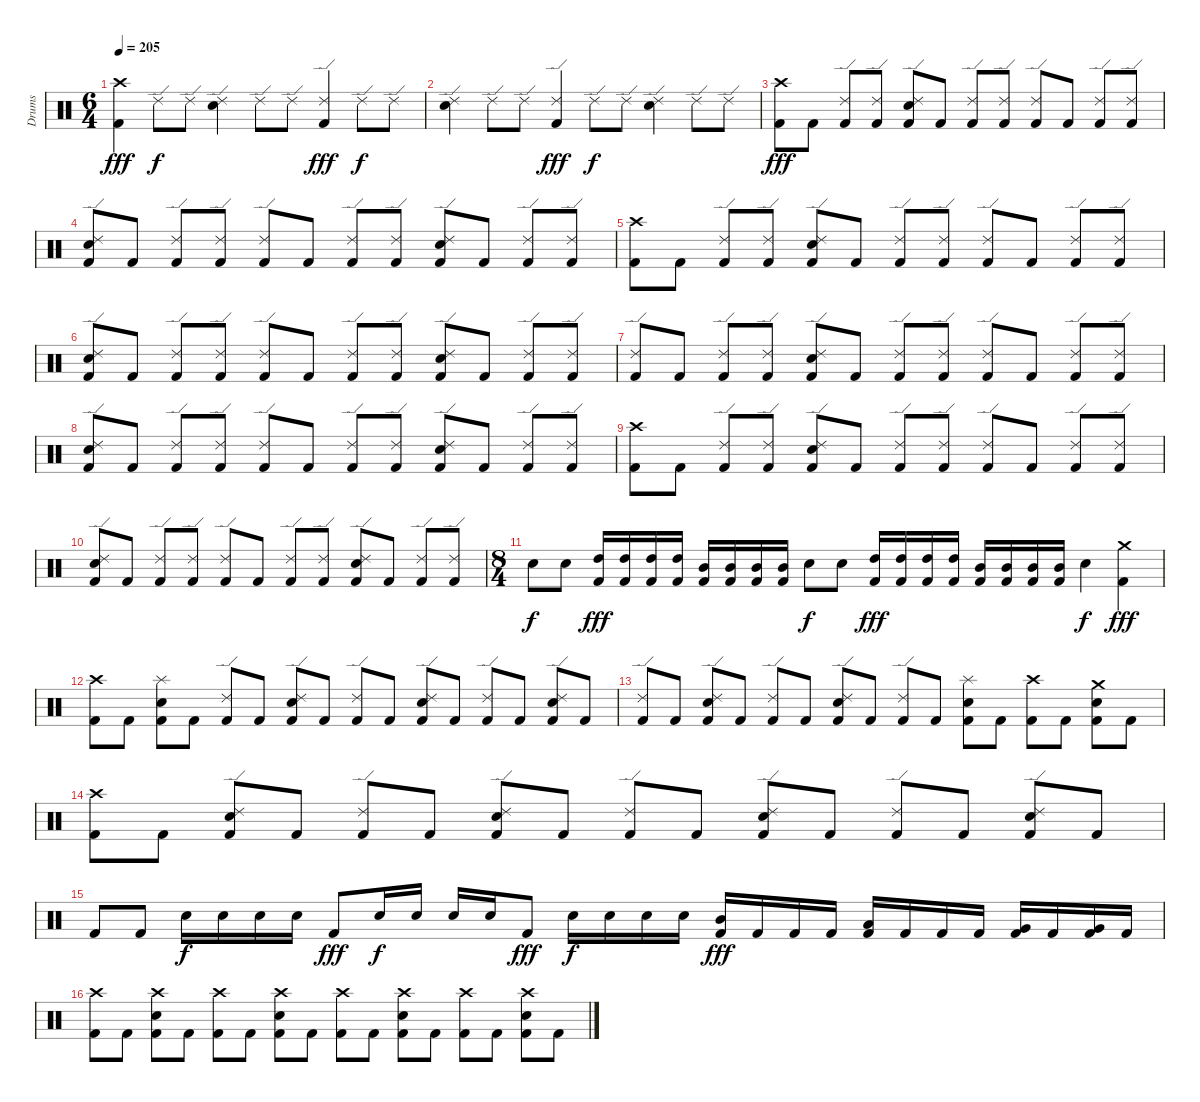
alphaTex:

\track ("Drums" "Drums") {instrument percussion}
\staff {score}
\articulation defaults
\ts (6 4)
\tempo 205
\clef neutral
\ks c
("Crash high (hit)" "Kick (hit) 2").4{dy fff} "Ride (edge) 2".8{dy f} "Ride (edge) 2".8 ("Ride (edge) 2" "Snare (hit) 2").4 "Ride (edge) 2".8 "Ride (edge) 2".8 ("Ride (edge) 2" "Kick (hit) 2").4{dy fff} "Ride (edge) 2".8{dy f} "Ride (edge) 2".8 |
("Ride (edge) 2" "Snare (hit) 2").4 "Ride (edge) 2".8 "Ride (edge) 2".8 ("Ride (edge) 2" "Kick (hit) 2").4{dy fff} "Ride (edge) 2".8{dy f} "Ride (edge) 2".8 ("Ride (edge) 2" "Snare (hit) 2").4 "Ride (edge) 2".8 "Ride (edge) 2".8 |
("Crash high (hit)" "Kick (hit) 2").8{dy fff} "Kick (hit) 2".8 ("Ride (edge) 2" "Kick (hit) 2").8 ("Ride (edge) 2" "Kick (hit) 2").8 ("Ride (edge) 2" "Snare (hit) 2" "Kick (hit) 2").8 "Kick (hit) 2".8 ("Ride (edge) 2" "Kick (hit) 2").8 ("Ride (edge) 2" "Kick (hit) 2").8 ("Ride (edge) 2" "Kick (hit) 2").8 "Kick (hit) 2".8 ("Ride (edge) 2" "Kick (hit) 2").8 ("Ride (edge) 2" "Kick (hit) 2").8 |
("Ride (edge) 2" "Snare (hit) 2" "Kick (hit) 2").8 "Kick (hit) 2".8 ("Ride (edge) 2" "Kick (hit) 2").8 ("Ride (edge) 2" "Kick (hit) 2").8 ("Ride (edge) 2" "Kick (hit) 2").8 "Kick (hit) 2".8 ("Ride (edge) 2" "Kick (hit) 2").8 ("Ride (edge) 2" "Kick (hit) 2").8 ("Ride (edge) 2" "Snare (hit) 2" "Kick (hit) 2").8 "Kick (hit) 2".8 ("Ride (edge) 2" "Kick (hit) 2").8 ("Ride (edge) 2" "Kick (hit) 2").8 |
("Crash high (hit)" "Kick (hit) 2").8 "Kick (hit) 2".8 ("Ride (edge) 2" "Kick (hit) 2").8 ("Ride (edge) 2" "Kick (hit) 2").8 ("Ride (edge) 2" "Snare (hit) 2" "Kick (hit) 2").8 "Kick (hit) 2".8 ("Ride (edge) 2" "Kick (hit) 2").8 ("Ride (edge) 2" "Kick (hit) 2").8 ("Ride (edge) 2" "Kick (hit) 2").8 "Kick (hit) 2".8 ("Ride (edge) 2" "Kick (hit) 2").8 ("Ride (edge) 2" "Kick (hit) 2").8 |
("Ride (edge) 2" "Snare (hit) 2" "Kick (hit) 2").8 "Kick (hit) 2".8 ("Ride (edge) 2" "Kick (hit) 2").8 ("Ride (edge) 2" "Kick (hit) 2").8 ("Ride (edge) 2" "Kick (hit) 2").8 "Kick (hit) 2".8 ("Ride (edge) 2" "Kick (hit) 2").8 ("Ride (edge) 2" "Kick (hit) 2").8 ("Ride (edge) 2" "Snare (hit) 2" "Kick (hit) 2").8 "Kick (hit) 2".8 ("Ride (edge) 2" "Kick (hit) 2").8 ("Ride (edge) 2" "Kick (hit) 2").8 |
("Ride (edge) 2" "Kick (hit) 2").8 "Kick (hit) 2".8 ("Ride (edge) 2" "Kick (hit) 2").8 ("Ride (edge) 2" "Kick (hit) 2").8 ("Ride (edge) 2" "Snare (hit) 2" "Kick (hit) 2").8 "Kick (hit) 2".8 ("Ride (edge) 2" "Kick (hit) 2").8 ("Ride (edge) 2" "Kick (hit) 2").8 ("Ride (edge) 2" "Kick (hit) 2").8 "Kick (hit) 2".8 ("Ride (edge) 2" "Kick (hit) 2").8 ("Ride (edge) 2" "Kick (hit) 2").8 |
("Ride (edge) 2" "Snare (hit) 2" "Kick (hit) 2").8 "Kick (hit) 2".8 ("Ride (edge) 2" "Kick (hit) 2").8 ("Ride (edge) 2" "Kick (hit) 2").8 ("Ride (edge) 2" "Kick (hit) 2").8 "Kick (hit) 2".8 ("Ride (edge) 2" "Kick (hit) 2").8 ("Ride (edge) 2" "Kick (hit) 2").8 ("Ride (edge) 2" "Snare (hit) 2" "Kick (hit) 2").8 "Kick (hit) 2".8 ("Ride (edge) 2" "Kick (hit) 2").8 ("Ride (edge) 2" "Kick (hit) 2").8 |
("Crash high (hit)" "Kick (hit) 2").8 "Kick (hit) 2".8 ("Ride (edge) 2" "Kick (hit) 2").8 ("Ride (edge) 2" "Kick (hit) 2").8 ("Ride (edge) 2" "Snare (hit) 2" "Kick (hit) 2").8 "Kick (hit) 2".8 ("Ride (edge) 2" "Kick (hit) 2").8 ("Ride (edge) 2" "Kick (hit) 2").8 ("Ride (edge) 2" "Kick (hit) 2").8 "Kick (hit) 2".8 ("Ride (edge) 2" "Kick (hit) 2").8 ("Ride (edge) 2" "Kick (hit) 2").8 |
("Ride (edge) 2" "Snare (hit) 2" "Kick (hit) 2").8 "Kick (hit) 2".8 ("Ride (edge) 2" "Kick (hit) 2").8 ("Ride (edge) 2" "Kick (hit) 2").8 ("Ride (edge) 2" "Kick (hit) 2").8 "Kick (hit) 2".8 ("Ride (edge) 2" "Kick (hit) 2").8 ("Ride (edge) 2" "Kick (hit) 2").8 ("Ride (edge) 2" "Snare (hit) 2" "Kick (hit) 2").8 "Kick (hit) 2".8 ("Ride (edge) 2" "Kick (hit) 2").8 ("Ride (edge) 2" "Kick (hit) 2").8 |
\ts (8 4)
"Snare (hit) 2".8{dy f} "Snare (hit) 2".8 ("High Tom (hit)" "Kick (hit) 2").16{dy fff} ("High Tom (hit)" "Kick (hit) 2").16 ("High Tom (hit)" "Kick (hit) 2").16 ("High Tom (hit)" "Kick (hit) 2").16 ("Mid Tom (hit)" "Kick (hit) 2").16 ("Mid Tom (hit)" "Kick (hit) 2").16 ("Mid Tom (hit)" "Kick (hit) 2").16 ("Mid Tom (hit)" "Kick (hit) 2").16 "Snare (hit) 2".8{dy f} "Snare (hit) 2".8 ("High Tom (hit)" "Kick (hit) 2").16{dy fff} ("High Tom (hit)" "Kick (hit) 2").16 ("High Tom (hit)" "Kick (hit) 2").16 ("High Tom (hit)" "Kick (hit) 2").16 ("Mid Tom (hit)" "Kick (hit) 2").16 ("Mid Tom (hit)" "Kick (hit) 2").16 ("Mid Tom (hit)" "Kick (hit) 2").16 ("Mid Tom (hit)" "Kick (hit) 2").16 "Snare (hit) 2".4{dy f} ("Crash medium (hit)" "Kick (hit) 2").4{dy fff} |
("Crash high (hit)" "Kick (hit) 2").8 "Kick (hit) 2".8 ("Splash (hit)" "Snare (hit) 2" "Kick (hit) 2").8 "Kick (hit) 2".8 ("Ride (edge) 2" "Kick (hit) 2").8 "Kick (hit) 2".8 ("Ride (edge) 2" "Snare (hit) 2" "Kick (hit) 2").8 "Kick (hit) 2".8 ("Ride (edge) 2" "Kick (hit) 2").8 "Kick (hit) 2".8 ("Ride (edge) 2" "Snare (hit) 2" "Kick (hit) 2").8 "Kick (hit) 2".8 ("Ride (edge) 2" "Kick (hit) 2").8 "Kick (hit) 2".8 ("Ride (edge) 2" "Snare (hit) 2" "Kick (hit) 2").8 "Kick (hit) 2".8 |
("Ride (edge) 2" "Kick (hit) 2").8 "Kick (hit) 2".8 ("Ride (edge) 2" "Snare (hit) 2" "Kick (hit) 2").8 "Kick (hit) 2".8 ("Ride (edge) 2" "Kick (hit) 2").8 "Kick (hit) 2".8 ("Ride (edge) 2" "Snare (hit) 2" "Kick (hit) 2").8 "Kick (hit) 2".8 ("Ride (edge) 2" "Kick (hit) 2").8 "Kick (hit) 2".8 ("Splash (hit)" "Snare (hit) 2" "Kick (hit) 2").8 "Kick (hit) 2".8 ("Crash high (hit)" "Kick (hit) 2").8 "Kick (hit) 2".8 ("Crash medium (hit)" "Snare (hit) 2" "Kick (hit) 2").8 "Kick (hit) 2".8 |
("Crash high (hit)" "Kick (hit) 2").8 "Kick (hit) 2".8 ("Ride (edge) 2" "Snare (hit) 2" "Kick (hit) 2").8 "Kick (hit) 2".8 ("Ride (edge) 2" "Kick (hit) 2").8 "Kick (hit) 2".8 ("Ride (edge) 2" "Snare (hit) 2" "Kick (hit) 2").8 "Kick (hit) 2".8 ("Ride (edge) 2" "Kick (hit) 2").8 "Kick (hit) 2".8 ("Ride (edge) 2" "Snare (hit) 2" "Kick (hit) 2").8 "Kick (hit) 2".8 ("Ride (edge) 2" "Kick (hit) 2").8 "Kick (hit) 2".8 ("Ride (edge) 2" "Snare (hit) 2" "Kick (hit) 2").8 "Kick (hit) 2".8 |
"Kick (hit) 2".8 "Kick (hit) 2".8 "Snare (hit) 2".16{dy f} "Snare (hit) 2".16 "Snare (hit) 2".16 "Snare (hit) 2".16 "Kick (hit) 2".8{dy fff} "Snare (hit) 2".16{dy f} "Snare (hit) 2".16 "Snare (hit) 2".16 "Snare (hit) 2".16 "Kick (hit) 2".8{dy fff} "Snare (hit) 2".16{dy f} "Snare (hit) 2".16 "Snare (hit) 2".16 "Snare (hit) 2".16 ("Mid Tom (hit)" "Kick (hit) 2").16{dy fff} "Kick (hit) 2".16 "Kick (hit) 2".16 "Kick (hit) 2".16 ("Low Tom (hit)" "Kick (hit) 2").16 "Kick (hit) 2".16 "Kick (hit) 2".16 "Kick (hit) 2".16 ("Very Low Tom (hit)" "Kick (hit) 2").16 "Kick (hit) 2".16 ("Very Low Tom (hit)" "Kick (hit) 2").16 "Kick (hit) 2".16 |
("Crash high (hit)" "Kick (hit) 2").8 "Kick (hit) 2".8 ("Crash high (hit)" "Snare (hit) 2" "Kick (hit) 2").8 "Kick (hit) 2".8 ("Crash high (hit)" "Kick (hit) 2").8 "Kick (hit) 2".8 ("Crash high (hit)" "Snare (hit) 2" "Kick (hit) 2").8 "Kick (hit) 2".8 ("Crash high (hit)" "Kick (hit) 2").8 "Kick (hit) 2".8 ("Crash high (hit)" "Snare (hit) 2" "Kick (hit) 2").8 "Kick (hit) 2".8 ("Crash high (hit)" "Kick (hit) 2").8 "Kick (hit) 2".8 ("Crash high (hit)" "Snare (hit) 2" "Kick (hit) 2").8 "Kick (hit) 2".8
